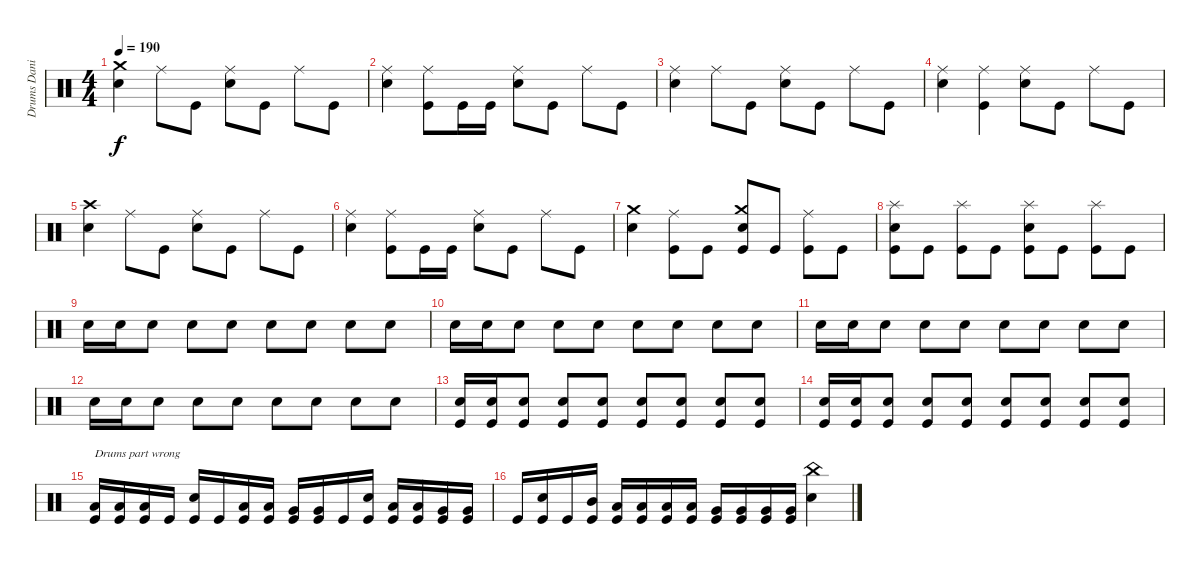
\track ("Drums Daniel" "Drums Dani") {instrument percussion}
\staff {score}
\articulation defaults
\ts (4 4)
\tempo 190
\clef neutral
\ks c
("Electric Snare (hit)" "Crash medium (hit)").4{dy f} "Ride (middle)".8 "Kick (hit)".8 ("Electric Snare (hit)" "Ride (middle)").8 "Kick (hit)".8 "Ride (middle)".8 "Kick (hit)".8 |
("Electric Snare (hit)" "Ride (middle)").4 ("Kick (hit)" "Ride (middle)").8 "Kick (hit)".16 "Kick (hit)".16 ("Electric Snare (hit)" "Ride (middle)").8 "Kick (hit)".8 "Ride (middle)".8 "Kick (hit)".8 |
("Electric Snare (hit)" "Ride (middle)").4 "Ride (middle)".8 "Kick (hit)".8 ("Electric Snare (hit)" "Ride (middle)").8 "Kick (hit)".8 "Ride (middle)".8 "Kick (hit)".8 |
("Electric Snare (hit)" "Ride (middle)").4 ("Kick (hit)" "Ride (middle)").4 ("Electric Snare (hit)" "Ride (middle)").8 "Kick (hit)".8 "Ride (middle)".8 "Kick (hit)".8 |
("Electric Snare (hit)" "Crash high (hit)").4 "Ride (middle)".8 "Kick (hit)".8 ("Electric Snare (hit)" "Ride (middle)").8 "Kick (hit)".8 "Ride (middle)".8 "Kick (hit)".8 |
("Electric Snare (hit)" "Ride (middle)").4 ("Kick (hit)" "Ride (middle)").8 "Kick (hit)".16 "Kick (hit)".16 ("Electric Snare (hit)" "Ride (middle)").8 "Kick (hit)".8 "Ride (middle)".8 "Kick (hit)".8 |
("Electric Snare (hit)" "Crash medium (hit)").4 ("Kick (hit)" "Ride (middle)").8 "Kick (hit)".8 ("Kick (hit)" "Electric Snare (hit)" "Crash medium (hit)").8 "Kick (hit)".8 ("Kick (hit)" "Ride (middle)").8 "Kick (hit)".8 |
("Kick (hit)" "Electric Snare (hit)" "Splash (hit)").8 "Kick (hit)".8 ("Kick (hit)" "Splash (hit)").8 "Kick (hit)".8 ("Kick (hit)" "Electric Snare (hit)" "Splash (hit)").8 "Kick (hit)".8 ("Kick (hit)" "Splash (hit)").8 "Kick (hit)".8 |
"Electric Snare (hit)".16 "Electric Snare (hit)".16 "Electric Snare (hit)".8 "Electric Snare (hit)".8 "Electric Snare (hit)".8 "Electric Snare (hit)".8 "Electric Snare (hit)".8 "Electric Snare (hit)".8 "Electric Snare (hit)".8 |
"Electric Snare (hit)".16 "Electric Snare (hit)".16 "Electric Snare (hit)".8 "Electric Snare (hit)".8 "Electric Snare (hit)".8 "Electric Snare (hit)".8 "Electric Snare (hit)".8 "Electric Snare (hit)".8 "Electric Snare (hit)".8 |
"Electric Snare (hit)".16 "Electric Snare (hit)".16 "Electric Snare (hit)".8 "Electric Snare (hit)".8 "Electric Snare (hit)".8 "Electric Snare (hit)".8 "Electric Snare (hit)".8 "Electric Snare (hit)".8 "Electric Snare (hit)".8 |
"Electric Snare (hit)".16 "Electric Snare (hit)".16 "Electric Snare (hit)".8 "Electric Snare (hit)".8 "Electric Snare (hit)".8 "Electric Snare (hit)".8 "Electric Snare (hit)".8 "Electric Snare (hit)".8 "Electric Snare (hit)".8 |
("Kick (hit)" "Electric Snare (hit)").16 ("Kick (hit)" "Electric Snare (hit)").16 ("Kick (hit)" "Electric Snare (hit)").8 ("Kick (hit)" "Electric Snare (hit)").8 ("Kick (hit)" "Electric Snare (hit)").8 ("Kick (hit)" "Electric Snare (hit)").8 ("Kick (hit)" "Electric Snare (hit)").8 ("Kick (hit)" "Electric Snare (hit)").8 ("Kick (hit)" "Electric Snare (hit)").8 |
("Kick (hit)" "Electric Snare (hit)").16 ("Kick (hit)" "Electric Snare (hit)").16 ("Kick (hit)" "Electric Snare (hit)").8 ("Kick (hit)" "Electric Snare (hit)").8 ("Kick (hit)" "Electric Snare (hit)").8 ("Kick (hit)" "Electric Snare (hit)").8 ("Kick (hit)" "Electric Snare (hit)").8 ("Kick (hit)" "Electric Snare (hit)").8 ("Kick (hit)" "Electric Snare (hit)").8 |
("Kick (hit)" "Low Tom (hit)").16{txt "Drums part wrong"} ("Kick (hit)" "Low Tom (hit)").16 ("Kick (hit)" "Low Tom (hit)").16 "Kick (hit)".16 ("Kick (hit)" "Electric Snare (hit)").16 "Kick (hit)".16 ("Kick (hit)" "Low Tom (hit)").16 ("Kick (hit)" "Low Tom (hit)").16 ("Kick (hit)" "Very Low Tom (hit)").16 ("Kick (hit)" "Very Low Tom (hit)").16 "Kick (hit)".16 ("Kick (hit)" "Electric Snare (hit)").16 ("Kick (hit)" "Low Tom (hit)").16 ("Kick (hit)" "Low Tom (hit)").16 ("Kick (hit)" "Very Low Tom (hit)").16 ("Kick (hit)" "Very Low Tom (hit)").16 |
"Kick (hit)".16 ("Kick (hit)" "Electric Snare (hit)").16 "Kick (hit)".16 ("Kick (hit)" "Mid Tom (hit)").16 ("Kick (hit)" "Low Tom (hit)").16 ("Kick (hit)" "Low Tom (hit)").16 ("Kick (hit)" "Low Tom (hit)").16 ("Kick (hit)" "Low Tom (hit)").16 ("Kick (hit)" "Very Low Tom (hit)").16 ("Kick (hit)" "Very Low Tom (hit)").16 ("Kick (hit)" "Very Low Tom (hit)").16 ("Kick (hit)" "Very Low Tom (hit)").16 ("Electric Snare (hit)" "China (hit)").4
